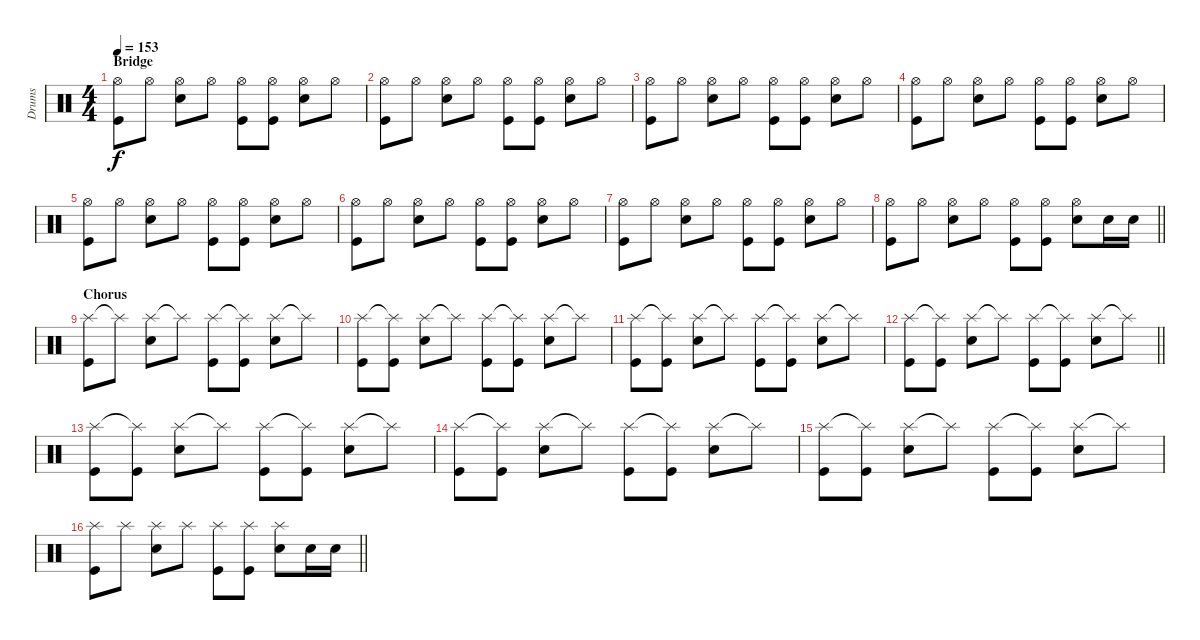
\track ("Drums" "Drums") {instrument percussion}
\staff {score}
\articulation defaults
\ts (4 4)
\section ("" "Bridge")
\tempo 153
\clef neutral
\ks c
("Hi-Hat (open)" "Kick (hit)").8{dy f} "Hi-Hat (open)".8 ("Hi-Hat (open)" "Snare (hit) 2").8 "Hi-Hat (open)".8 ("Hi-Hat (open)" "Kick (hit)").8 ("Hi-Hat (open)" "Kick (hit)").8 ("Hi-Hat (open)" "Snare (hit) 2").8 "Hi-Hat (open)".8 |
("Hi-Hat (open)" "Kick (hit)").8 "Hi-Hat (open)".8 ("Hi-Hat (open)" "Snare (hit) 2").8 "Hi-Hat (open)".8 ("Hi-Hat (open)" "Kick (hit)").8 ("Hi-Hat (open)" "Kick (hit)").8 ("Hi-Hat (open)" "Snare (hit) 2").8 "Hi-Hat (open)".8 |
("Hi-Hat (open)" "Kick (hit)").8 "Hi-Hat (open)".8 ("Hi-Hat (open)" "Snare (hit) 2").8 "Hi-Hat (open)".8 ("Hi-Hat (open)" "Kick (hit)").8 ("Hi-Hat (open)" "Kick (hit)").8 ("Hi-Hat (open)" "Snare (hit) 2").8 "Hi-Hat (open)".8 |
("Hi-Hat (open)" "Kick (hit)").8 "Hi-Hat (open)".8 ("Hi-Hat (open)" "Snare (hit) 2").8 "Hi-Hat (open)".8 ("Hi-Hat (open)" "Kick (hit)").8 ("Hi-Hat (open)" "Kick (hit)").8 ("Hi-Hat (open)" "Snare (hit) 2").8 "Hi-Hat (open)".8 |
("Hi-Hat (open)" "Kick (hit)").8 "Hi-Hat (open)".8 ("Hi-Hat (open)" "Snare (hit) 2").8 "Hi-Hat (open)".8 ("Hi-Hat (open)" "Kick (hit)").8 ("Hi-Hat (open)" "Kick (hit)").8 ("Hi-Hat (open)" "Snare (hit) 2").8 "Hi-Hat (open)".8 |
("Hi-Hat (open)" "Kick (hit)").8 "Hi-Hat (open)".8 ("Hi-Hat (open)" "Snare (hit) 2").8 "Hi-Hat (open)".8 ("Hi-Hat (open)" "Kick (hit)").8 ("Hi-Hat (open)" "Kick (hit)").8 ("Hi-Hat (open)" "Snare (hit) 2").8 "Hi-Hat (open)".8 |
("Hi-Hat (open)" "Kick (hit)").8 "Hi-Hat (open)".8 ("Hi-Hat (open)" "Snare (hit) 2").8 "Hi-Hat (open)".8 ("Hi-Hat (open)" "Kick (hit)").8 ("Hi-Hat (open)" "Kick (hit)").8 ("Hi-Hat (open)" "Snare (hit) 2").8 "Hi-Hat (open)".8 |
\barLineRight lightlight
("Hi-Hat (open)" "Kick (hit)").8 "Hi-Hat (open)".8 ("Hi-Hat (open)" "Snare (hit) 2").8 "Hi-Hat (open)".8 ("Hi-Hat (open)" "Kick (hit)").8 ("Hi-Hat (open)" "Kick (hit)").8 ("Hi-Hat (open)" "Snare (hit) 2").8 "Snare (hit) 2".16 "Snare (hit) 2".16 |
\section ("" "Chorus")
("Splash (hit)" "Kick (hit)").8 "Splash (hit)"{t}.8 ("Splash (hit)" "Snare (hit) 2").8 "Splash (hit)"{t}.8 ("Splash (hit)" "Kick (hit)").8 ("Splash (hit)"{t} "Kick (hit)").8 ("Splash (hit)" "Snare (hit) 2").8 "Splash (hit)"{t}.8 |
("Splash (hit)" "Kick (hit)").8 ("Splash (hit)"{t} "Kick (hit)").8 ("Splash (hit)" "Snare (hit) 2").8 "Splash (hit)"{t}.8 ("Splash (hit)" "Kick (hit)").8 ("Splash (hit)"{t} "Kick (hit)").8 ("Splash (hit)" "Snare (hit) 2").8 "Splash (hit)"{t}.8 |
("Splash (hit)" "Kick (hit)").8 ("Splash (hit)"{t} "Kick (hit)").8 ("Splash (hit)" "Snare (hit) 2").8 "Splash (hit)"{t}.8 ("Splash (hit)" "Kick (hit)").8 ("Splash (hit)"{t} "Kick (hit)").8 ("Splash (hit)" "Snare (hit) 2").8 "Splash (hit)"{t}.8 |
\barLineRight lightlight
("Splash (hit)" "Kick (hit)").8 ("Splash (hit)"{t} "Kick (hit)").8 ("Splash (hit)" "Snare (hit) 2").8 "Splash (hit)"{t}.8 ("Splash (hit)" "Kick (hit)").8 ("Splash (hit)"{t} "Kick (hit)").8 ("Splash (hit)" "Snare (hit) 2").8 "Splash (hit)"{t}.8 |
("Splash (hit)" "Kick (hit)").8 ("Splash (hit)"{t} "Kick (hit)").8 ("Splash (hit)" "Snare (hit) 2").8 "Splash (hit)"{t}.8 ("Splash (hit)" "Kick (hit)").8 ("Splash (hit)"{t} "Kick (hit)").8 ("Splash (hit)" "Snare (hit) 2").8 "Splash (hit)"{t}.8 |
("Splash (hit)" "Kick (hit)").8 ("Splash (hit)"{t} "Kick (hit)").8 ("Splash (hit)" "Snare (hit) 2").8 "Splash (hit)"{t}.8 ("Splash (hit)" "Kick (hit)").8 ("Splash (hit)"{t} "Kick (hit)").8 ("Splash (hit)" "Snare (hit) 2").8 "Splash (hit)"{t}.8 |
("Splash (hit)" "Kick (hit)").8 ("Splash (hit)"{t} "Kick (hit)").8 ("Splash (hit)" "Snare (hit) 2").8 "Splash (hit)"{t}.8 ("Splash (hit)" "Kick (hit)").8 ("Splash (hit)"{t} "Kick (hit)").8 ("Splash (hit)" "Snare (hit) 2").8 "Splash (hit)"{t}.8 |
\barLineRight lightlight
("Splash (hit)" "Kick (hit)").8 "Splash (hit)".8 ("Splash (hit)" "Snare (hit) 2").8 "Splash (hit)".8 ("Splash (hit)" "Kick (hit)").8 ("Splash (hit)" "Kick (hit)").8 ("Splash (hit)" "Snare (hit) 2").8 "Snare (hit) 2".16 "Snare (hit) 2".16
